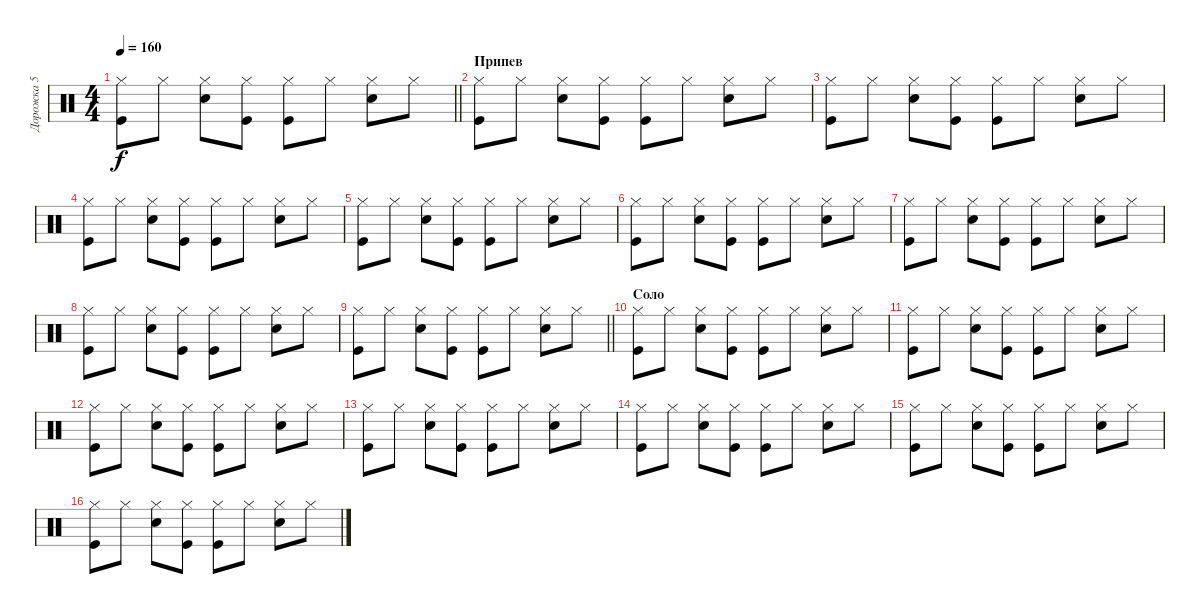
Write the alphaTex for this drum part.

\track ("Дорожка 5" "Дорожка 5") {solo instrument percussion}
\staff {score}
\articulation defaults
\ts (4 4)
\tempo 160
\clef neutral
\barLineRight lightlight
\ks c
("Kick (hit)" "Hi-Hat (closed)").8{dy f} "Hi-Hat (closed)".8 ("Hi-Hat (closed)" "Snare (hit) 2").8 ("Kick (hit)" "Hi-Hat (closed)").8 ("Kick (hit)" "Hi-Hat (closed)").8 "Hi-Hat (closed)".8 ("Hi-Hat (closed)" "Snare (hit) 2").8 "Hi-Hat (closed)".8 |
\section ("" "Припев")
("Kick (hit)" "Hi-Hat (closed)").8 "Hi-Hat (closed)".8 ("Hi-Hat (closed)" "Snare (hit) 2").8 ("Kick (hit)" "Hi-Hat (closed)").8 ("Kick (hit)" "Hi-Hat (closed)").8 "Hi-Hat (closed)".8 ("Hi-Hat (closed)" "Snare (hit) 2").8 "Hi-Hat (closed)".8 |
("Kick (hit)" "Hi-Hat (closed)").8 "Hi-Hat (closed)".8 ("Hi-Hat (closed)" "Snare (hit) 2").8 ("Kick (hit)" "Hi-Hat (closed)").8 ("Kick (hit)" "Hi-Hat (closed)").8 "Hi-Hat (closed)".8 ("Hi-Hat (closed)" "Snare (hit) 2").8 "Hi-Hat (closed)".8 |
("Kick (hit)" "Hi-Hat (closed)").8 "Hi-Hat (closed)".8 ("Hi-Hat (closed)" "Snare (hit) 2").8 ("Kick (hit)" "Hi-Hat (closed)").8 ("Kick (hit)" "Hi-Hat (closed)").8 "Hi-Hat (closed)".8 ("Hi-Hat (closed)" "Snare (hit) 2").8 "Hi-Hat (closed)".8 |
("Kick (hit)" "Hi-Hat (closed)").8 "Hi-Hat (closed)".8 ("Hi-Hat (closed)" "Snare (hit) 2").8 ("Kick (hit)" "Hi-Hat (closed)").8 ("Kick (hit)" "Hi-Hat (closed)").8 "Hi-Hat (closed)".8 ("Hi-Hat (closed)" "Snare (hit) 2").8 "Hi-Hat (closed)".8 |
("Kick (hit)" "Hi-Hat (closed)").8 "Hi-Hat (closed)".8 ("Hi-Hat (closed)" "Snare (hit) 2").8 ("Kick (hit)" "Hi-Hat (closed)").8 ("Kick (hit)" "Hi-Hat (closed)").8 "Hi-Hat (closed)".8 ("Hi-Hat (closed)" "Snare (hit) 2").8 "Hi-Hat (closed)".8 |
("Kick (hit)" "Hi-Hat (closed)").8 "Hi-Hat (closed)".8 ("Hi-Hat (closed)" "Snare (hit) 2").8 ("Kick (hit)" "Hi-Hat (closed)").8 ("Kick (hit)" "Hi-Hat (closed)").8 "Hi-Hat (closed)".8 ("Hi-Hat (closed)" "Snare (hit) 2").8 "Hi-Hat (closed)".8 |
("Kick (hit)" "Hi-Hat (closed)").8 "Hi-Hat (closed)".8 ("Hi-Hat (closed)" "Snare (hit) 2").8 ("Kick (hit)" "Hi-Hat (closed)").8 ("Kick (hit)" "Hi-Hat (closed)").8 "Hi-Hat (closed)".8 ("Hi-Hat (closed)" "Snare (hit) 2").8 "Hi-Hat (closed)".8 |
\barLineRight lightlight
("Kick (hit)" "Hi-Hat (closed)").8 "Hi-Hat (closed)".8 ("Hi-Hat (closed)" "Snare (hit) 2").8 ("Kick (hit)" "Hi-Hat (closed)").8 ("Kick (hit)" "Hi-Hat (closed)").8 "Hi-Hat (closed)".8 ("Hi-Hat (closed)" "Snare (hit) 2").8 "Hi-Hat (closed)".8 |
\section ("" "Соло")
("Kick (hit)" "Hi-Hat (closed)").8 "Hi-Hat (closed)".8 ("Hi-Hat (closed)" "Snare (hit) 2").8 ("Kick (hit)" "Hi-Hat (closed)").8 ("Kick (hit)" "Hi-Hat (closed)").8 "Hi-Hat (closed)".8 ("Hi-Hat (closed)" "Snare (hit) 2").8 "Hi-Hat (closed)".8 |
("Kick (hit)" "Hi-Hat (closed)").8 "Hi-Hat (closed)".8 ("Hi-Hat (closed)" "Snare (hit) 2").8 ("Kick (hit)" "Hi-Hat (closed)").8 ("Kick (hit)" "Hi-Hat (closed)").8 "Hi-Hat (closed)".8 ("Hi-Hat (closed)" "Snare (hit) 2").8 "Hi-Hat (closed)".8 |
("Kick (hit)" "Hi-Hat (closed)").8 "Hi-Hat (closed)".8 ("Hi-Hat (closed)" "Snare (hit) 2").8 ("Kick (hit)" "Hi-Hat (closed)").8 ("Kick (hit)" "Hi-Hat (closed)").8 "Hi-Hat (closed)".8 ("Hi-Hat (closed)" "Snare (hit) 2").8 "Hi-Hat (closed)".8 |
("Kick (hit)" "Hi-Hat (closed)").8 "Hi-Hat (closed)".8 ("Hi-Hat (closed)" "Snare (hit) 2").8 ("Kick (hit)" "Hi-Hat (closed)").8 ("Kick (hit)" "Hi-Hat (closed)").8 "Hi-Hat (closed)".8 ("Hi-Hat (closed)" "Snare (hit) 2").8 "Hi-Hat (closed)".8 |
("Kick (hit)" "Hi-Hat (closed)").8 "Hi-Hat (closed)".8 ("Hi-Hat (closed)" "Snare (hit) 2").8 ("Kick (hit)" "Hi-Hat (closed)").8 ("Kick (hit)" "Hi-Hat (closed)").8 "Hi-Hat (closed)".8 ("Hi-Hat (closed)" "Snare (hit) 2").8 "Hi-Hat (closed)".8 |
("Kick (hit)" "Hi-Hat (closed)").8 "Hi-Hat (closed)".8 ("Hi-Hat (closed)" "Snare (hit) 2").8 ("Kick (hit)" "Hi-Hat (closed)").8 ("Kick (hit)" "Hi-Hat (closed)").8 "Hi-Hat (closed)".8 ("Hi-Hat (closed)" "Snare (hit) 2").8 "Hi-Hat (closed)".8 |
("Kick (hit)" "Hi-Hat (closed)").8 "Hi-Hat (closed)".8 ("Hi-Hat (closed)" "Snare (hit) 2").8 ("Kick (hit)" "Hi-Hat (closed)").8 ("Kick (hit)" "Hi-Hat (closed)").8 "Hi-Hat (closed)".8 ("Hi-Hat (closed)" "Snare (hit) 2").8 "Hi-Hat (closed)".8
